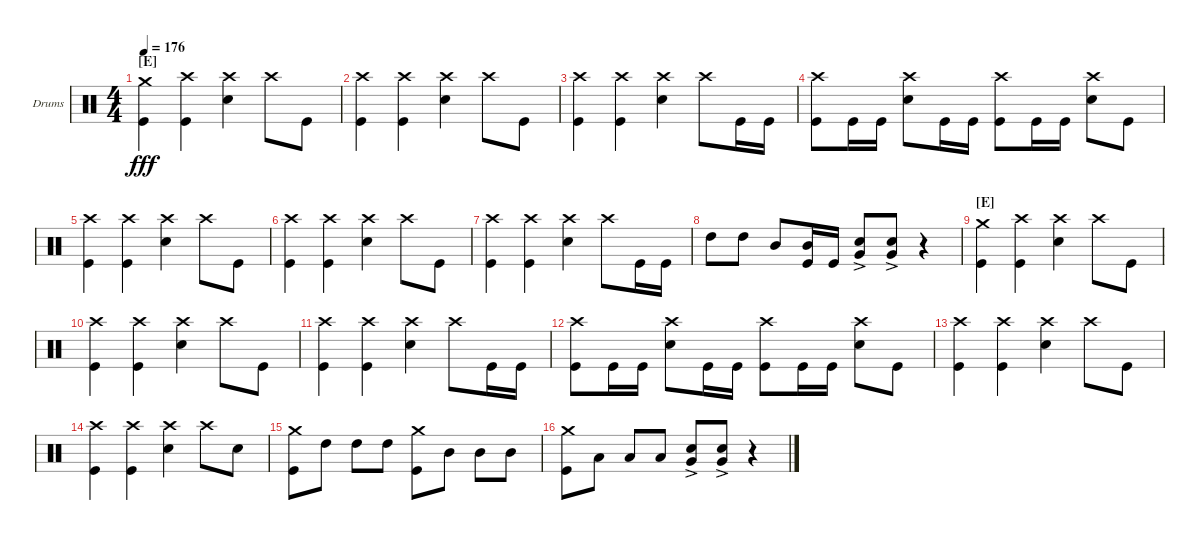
\defaultSystemsLayout 4
\bracketExtendMode groupsimilarinstruments
\firstSystemTrackNameOrientation horizontal
\otherSystemsTrackNameOrientation horizontal
\track ("Drums" "Drums") {instrument percussion}
\staff {score}
\articulation defaults
\ts (4 4)
\section ("E" "")
\tempo 176
\clef neutral
\ks c
("Kick (hit)" "Crash medium (hit)").4{dy fff} ("Kick (hit)" "Crash high (hit)").4 ("Snare (hit) 2" "Crash high (hit)").4 "Crash high (hit)".8 "Kick (hit)".8 |
("Kick (hit)" "Crash high (hit)").4 ("Kick (hit)" "Crash high (hit)").4 ("Snare (hit) 2" "Crash high (hit)").4 "Crash high (hit)".8 "Kick (hit)".8 |
("Kick (hit)" "Crash high (hit)").4 ("Kick (hit)" "Crash high (hit)").4 ("Snare (hit) 2" "Crash high (hit)").4 "Crash high (hit)".8 "Kick (hit)".16 "Kick (hit)".16 |
("Crash high (hit)" "Kick (hit)").8 "Kick (hit)".16 "Kick (hit)".16 ("Snare (hit) 2" "Crash high (hit)").8 "Kick (hit)".16 "Kick (hit)".16 ("Crash high (hit)" "Kick (hit)").8 "Kick (hit)".16 "Kick (hit)".16 ("Snare (hit) 2" "Crash high (hit)").8 "Kick (hit)".8 |
("Kick (hit)" "Crash high (hit)").4 ("Kick (hit)" "Crash high (hit)").4 ("Snare (hit) 2" "Crash high (hit)").4 "Crash high (hit)".8 "Kick (hit)".8 |
("Kick (hit)" "Crash high (hit)").4 ("Kick (hit)" "Crash high (hit)").4 ("Snare (hit) 2" "Crash high (hit)").4 "Crash high (hit)".8 "Kick (hit)".8 |
("Kick (hit)" "Crash high (hit)").4 ("Kick (hit)" "Crash high (hit)").4 ("Snare (hit) 2" "Crash high (hit)").4 "Crash high (hit)".8 "Kick (hit)".16 "Kick (hit)".16 |
"High Tom (hit)".8 "High Tom (hit)".8 "Mid Tom (hit)".8 ("Mid Tom (hit)" "Kick (hit)").16 "Kick (hit)".16 ("Very Low Tom (hit)"{ac} "Snare (hit) 2"{ac}).8 ("Very Low Tom (hit)"{ac} "Snare (hit) 2"{ac}).8 r.4 |
\section ("E" "")
("Kick (hit)" "Crash medium (hit)").4 ("Kick (hit)" "Crash high (hit)").4 ("Snare (hit) 2" "Crash high (hit)").4 "Crash high (hit)".8 "Kick (hit)".8 |
("Kick (hit)" "Crash high (hit)").4 ("Kick (hit)" "Crash high (hit)").4 ("Snare (hit) 2" "Crash high (hit)").4 "Crash high (hit)".8 "Kick (hit)".8 |
("Kick (hit)" "Crash high (hit)").4 ("Kick (hit)" "Crash high (hit)").4 ("Snare (hit) 2" "Crash high (hit)").4 "Crash high (hit)".8 "Kick (hit)".16 "Kick (hit)".16 |
("Crash high (hit)" "Kick (hit)").8 "Kick (hit)".16 "Kick (hit)".16 ("Snare (hit) 2" "Crash high (hit)").8 "Kick (hit)".16 "Kick (hit)".16 ("Crash high (hit)" "Kick (hit)").8 "Kick (hit)".16 "Kick (hit)".16 ("Snare (hit) 2" "Crash high (hit)").8 "Kick (hit)".8 |
("Kick (hit)" "Crash high (hit)").4 ("Kick (hit)" "Crash high (hit)").4 ("Snare (hit) 2" "Crash high (hit)").4 "Crash high (hit)".8 "Kick (hit)".8 |
("Kick (hit)" "Crash high (hit)").4 ("Kick (hit)" "Crash high (hit)").4 ("Snare (hit) 2" "Crash high (hit)").4 "Crash high (hit)".8 "Snare (hit) 2".8 |
("Kick (hit)" "Crash medium (hit)").8 "High Tom (hit)".8 "High Tom (hit)".8 "High Tom (hit)".8 ("Kick (hit)" "Crash medium (hit)").8 "Mid Tom (hit)".8 "Mid Tom (hit)".8 "Mid Tom (hit)".8 |
("Kick (hit)" "Crash medium (hit)").8 "Low Tom (hit)".8 "Low Tom (hit)".8 "Low Tom (hit)".8 ("Very Low Tom (hit)"{ac} "Snare (hit) 2"{ac}).8 ("Very Low Tom (hit)"{ac} "Snare (hit) 2"{ac}).8 r.4
